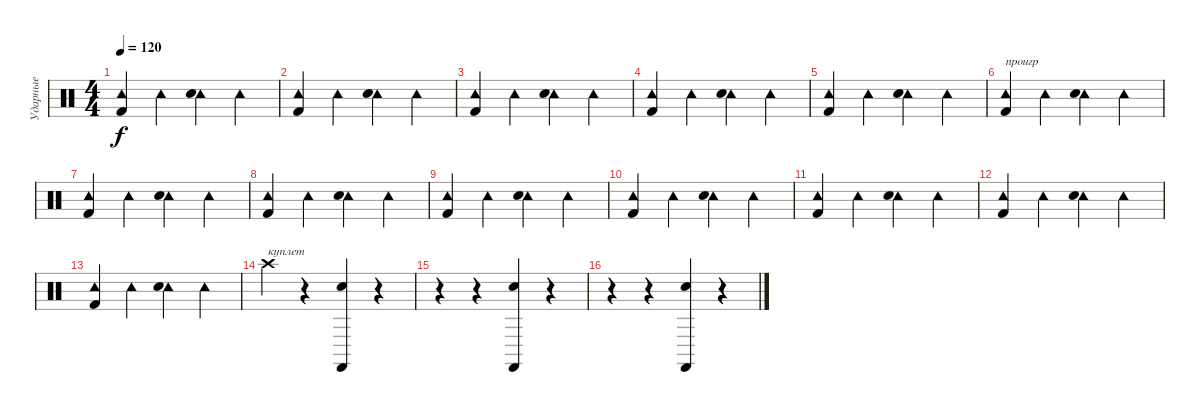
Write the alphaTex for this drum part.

\track ("Ударные" "Ударные") {instrument percussion}
\staff {score}
\articulation defaults
\ts (4 4)
\tempo 120
\clef neutral
\ks c
("Tambourine (hit)" "Kick (hit) 2").4{dy f} "Tambourine (hit)".4 ("Tambourine (hit)" "Electric Snare (hit)").4 "Tambourine (hit)".4 |
("Tambourine (hit)" "Kick (hit) 2").4 "Tambourine (hit)".4 ("Tambourine (hit)" "Electric Snare (hit)").4 "Tambourine (hit)".4 |
("Tambourine (hit)" "Kick (hit) 2").4 "Tambourine (hit)".4 ("Tambourine (hit)" "Electric Snare (hit)").4 "Tambourine (hit)".4 |
("Tambourine (hit)" "Kick (hit) 2").4 "Tambourine (hit)".4 ("Tambourine (hit)" "Electric Snare (hit)").4 "Tambourine (hit)".4 |
("Tambourine (hit)" "Kick (hit) 2").4 "Tambourine (hit)".4 ("Tambourine (hit)" "Electric Snare (hit)").4 "Tambourine (hit)".4 |
("Tambourine (hit)" "Kick (hit) 2").4{txt "проигр"} "Tambourine (hit)".4 ("Tambourine (hit)" "Electric Snare (hit)").4 "Tambourine (hit)".4 |
("Tambourine (hit)" "Kick (hit) 2").4 "Tambourine (hit)".4 ("Tambourine (hit)" "Electric Snare (hit)").4 "Tambourine (hit)".4 |
("Tambourine (hit)" "Kick (hit) 2").4 "Tambourine (hit)".4 ("Tambourine (hit)" "Electric Snare (hit)").4 "Tambourine (hit)".4 |
("Tambourine (hit)" "Kick (hit) 2").4 "Tambourine (hit)".4 ("Tambourine (hit)" "Electric Snare (hit)").4 "Tambourine (hit)".4 |
("Tambourine (hit)" "Kick (hit) 2").4 "Tambourine (hit)".4 ("Tambourine (hit)" "Electric Snare (hit)").4 "Tambourine (hit)".4 |
("Tambourine (hit)" "Kick (hit) 2").4 "Tambourine (hit)".4 ("Tambourine (hit)" "Electric Snare (hit)").4 "Tambourine (hit)".4 |
("Tambourine (hit)" "Kick (hit) 2").4 "Tambourine (hit)".4 ("Tambourine (hit)" "Electric Snare (hit)").4 "Tambourine (hit)".4 |
("Tambourine (hit)" "Kick (hit) 2").4 "Tambourine (hit)".4 ("Tambourine (hit)" "Electric Snare (hit)").4 "Tambourine (hit)".4 |
"Crash high (hit)".4{txt "куплет"} r.4 ("Castanets (hit)" "Metronome (bell)").4 r.4 |
r.4 r.4 ("Castanets (hit)" "Metronome (bell)").4 r.4 |
r.4 r.4 ("Castanets (hit)" "Metronome (bell)").4 r.4
